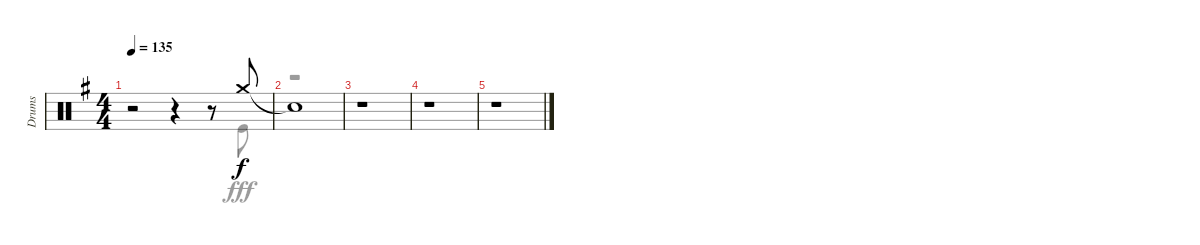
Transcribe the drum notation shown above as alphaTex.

\track ("Drums" "Drums") {instrument percussion}
\staff {score}
\articulation defaults
\voice
\ts (4 4)
\tempo 135
\clef neutral
\ks g
r.2{dy f} r.4 r.8 "Crash medium (hit)".8 |
"Snare (hit)"{t}.1 |
r.1 |
r.1 |
r.1
\voice
\clef neutral
\ottava regular
\simile none
\ks g
r.2{dy fff} r.4 r.8 "Kick (hit)".8 |
r.1 |
r.1 |
r.1 |
r.1
